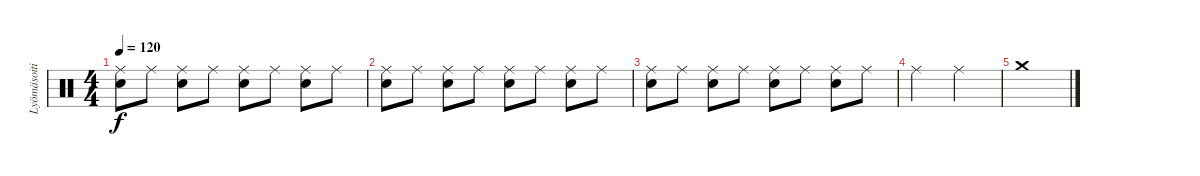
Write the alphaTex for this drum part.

\track ("Lyömäsoitin" "Lyömäsoiti") {instrument percussion}
\staff {score}
\articulation defaults
\ts (4 4)
\tempo 120
\clef neutral
\ks c
("Ride (middle)" "Electric Snare (hit)").8{dy f} "Ride (middle)".8 ("Ride (middle)" "Electric Snare (hit)").8 "Ride (middle)".8 ("Ride (middle)" "Electric Snare (hit)").8 "Ride (middle)".8 ("Ride (middle)" "Electric Snare (hit)").8 "Ride (middle)".8 |
("Ride (middle)" "Electric Snare (hit)").8 "Ride (middle)".8 ("Ride (middle)" "Electric Snare (hit)").8 "Ride (middle)".8 ("Ride (middle)" "Electric Snare (hit)").8 "Ride (middle)".8 ("Ride (middle)" "Electric Snare (hit)").8 "Ride (middle)".8 |
("Ride (middle)" "Electric Snare (hit)").8 "Ride (middle)".8 ("Ride (middle)" "Electric Snare (hit)").8 "Ride (middle)".8 ("Ride (middle)" "Electric Snare (hit)").8 "Ride (middle)".8 ("Ride (middle)" "Electric Snare (hit)").8 "Ride (middle)".8 |
"Ride (middle)".2 "Ride (middle)".2 |
"Crash medium (hit)".1
